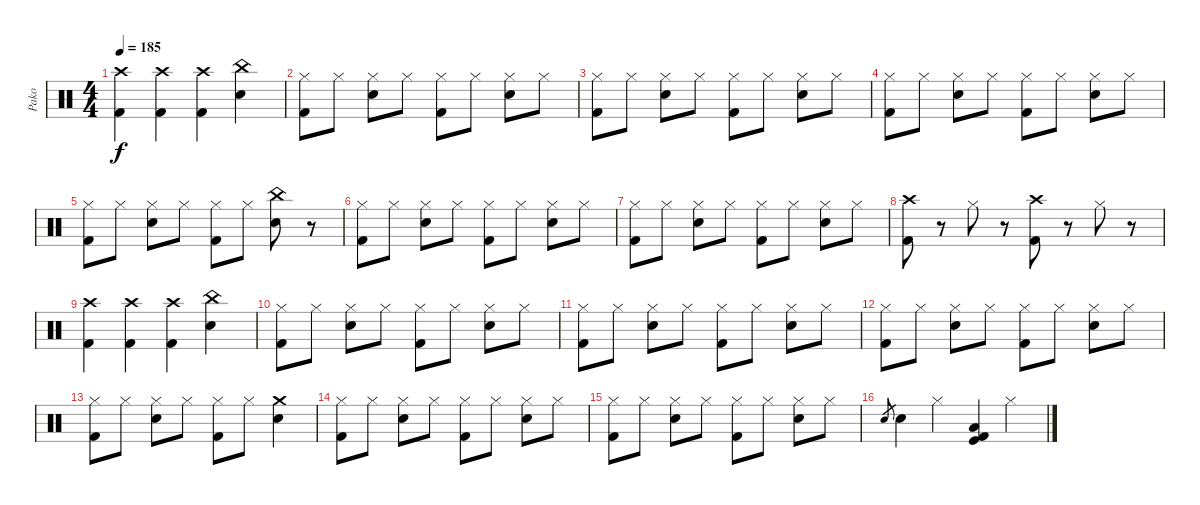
\track ("Pako" "Pako") {instrument percussion}
\staff {score}
\articulation defaults
\ts (4 4)
\tempo 185
\clef neutral
\ks c
("Crash high (hit)" "Kick (hit) 2").4{dy f} ("Crash high (hit)" "Kick (hit) 2").4 ("Crash high (hit)" "Kick (hit) 2").4 ("China (hit)" "Snare (hit) 2").4 |
("Hi-Hat (closed)" "Kick (hit) 2").8 "Hi-Hat (closed)".8 ("Hi-Hat (closed)" "Snare (hit) 2").8 "Hi-Hat (closed)".8 ("Hi-Hat (closed)" "Kick (hit) 2").8 "Hi-Hat (closed)".8 ("Hi-Hat (closed)" "Snare (hit) 2").8 "Hi-Hat (closed)".8 |
("Hi-Hat (closed)" "Kick (hit) 2").8 "Hi-Hat (closed)".8 ("Hi-Hat (closed)" "Snare (hit) 2").8 "Hi-Hat (closed)".8 ("Hi-Hat (closed)" "Kick (hit) 2").8 "Hi-Hat (closed)".8 ("Hi-Hat (closed)" "Snare (hit) 2").8 "Hi-Hat (closed)".8 |
("Hi-Hat (closed)" "Kick (hit) 2").8 "Hi-Hat (closed)".8 ("Hi-Hat (closed)" "Snare (hit) 2").8 "Hi-Hat (closed)".8 ("Hi-Hat (closed)" "Kick (hit) 2").8 "Hi-Hat (closed)".8 ("Hi-Hat (closed)" "Snare (hit) 2").8 "Hi-Hat (closed)".8 |
("Hi-Hat (closed)" "Kick (hit) 2").8 "Hi-Hat (closed)".8 ("Hi-Hat (closed)" "Snare (hit) 2").8 "Hi-Hat (closed)".8 ("Hi-Hat (closed)" "Kick (hit) 2").8 "Hi-Hat (closed)".8 ("China (hit)" "Snare (hit) 2").8 r.8 |
("Hi-Hat (closed)" "Kick (hit) 2").8 "Hi-Hat (closed)".8 ("Hi-Hat (closed)" "Snare (hit) 2").8 "Hi-Hat (closed)".8 ("Hi-Hat (closed)" "Kick (hit) 2").8 "Hi-Hat (closed)".8 ("Hi-Hat (closed)" "Snare (hit) 2").8 "Hi-Hat (closed)".8 |
("Hi-Hat (closed)" "Kick (hit) 2").8 "Hi-Hat (closed)".8 ("Hi-Hat (closed)" "Snare (hit) 2").8 "Hi-Hat (closed)".8 ("Hi-Hat (closed)" "Kick (hit) 2").8 "Hi-Hat (closed)".8 ("Hi-Hat (closed)" "Snare (hit) 2").8 "Hi-Hat (closed)".8 |
("Crash high (hit)" "Kick (hit) 2").8 r.8 "Hi-Hat (closed)".8 r.8 ("Crash high (hit)" "Kick (hit) 2").8 r.8 "Hi-Hat (closed)".8 r.8 |
("Crash high (hit)" "Kick (hit) 2").4 ("Crash high (hit)" "Kick (hit) 2").4 ("Crash high (hit)" "Kick (hit) 2").4 ("China (hit)" "Snare (hit) 2").4 |
("Hi-Hat (closed)" "Kick (hit) 2").8 "Hi-Hat (closed)".8 ("Hi-Hat (closed)" "Snare (hit) 2").8 "Hi-Hat (closed)".8 ("Hi-Hat (closed)" "Kick (hit) 2").8 "Hi-Hat (closed)".8 ("Hi-Hat (closed)" "Snare (hit) 2").8 "Hi-Hat (closed)".8 |
("Hi-Hat (closed)" "Kick (hit) 2").8 "Hi-Hat (closed)".8 ("Hi-Hat (closed)" "Snare (hit) 2").8 "Hi-Hat (closed)".8 ("Hi-Hat (closed)" "Kick (hit) 2").8 "Hi-Hat (closed)".8 ("Hi-Hat (closed)" "Snare (hit) 2").8 "Hi-Hat (closed)".8 |
("Hi-Hat (closed)" "Kick (hit) 2").8 "Hi-Hat (closed)".8 ("Hi-Hat (closed)" "Snare (hit) 2").8 "Hi-Hat (closed)".8 ("Hi-Hat (closed)" "Kick (hit) 2").8 "Hi-Hat (closed)".8 ("Hi-Hat (closed)" "Snare (hit) 2").8 "Hi-Hat (closed)".8 |
("Hi-Hat (closed)" "Kick (hit) 2").8 "Hi-Hat (closed)".8 ("Hi-Hat (closed)" "Snare (hit) 2").8 "Hi-Hat (closed)".8 ("Hi-Hat (closed)" "Kick (hit) 2").8 "Hi-Hat (closed)".8 ("Crash medium (hit)" "Snare (hit) 2").4 |
("Hi-Hat (closed)" "Kick (hit) 2").8 "Hi-Hat (closed)".8 ("Hi-Hat (closed)" "Snare (hit) 2").8 "Hi-Hat (closed)".8 ("Hi-Hat (closed)" "Kick (hit) 2").8 "Hi-Hat (closed)".8 ("Hi-Hat (closed)" "Snare (hit) 2").8 "Hi-Hat (closed)".8 |
("Hi-Hat (closed)" "Kick (hit) 2").8 "Hi-Hat (closed)".8 ("Hi-Hat (closed)" "Snare (hit) 2").8 "Hi-Hat (closed)".8 ("Hi-Hat (closed)" "Kick (hit) 2").8 "Hi-Hat (closed)".8 ("Hi-Hat (closed)" "Snare (hit) 2").8 "Hi-Hat (closed)".8 |
"Snare (hit) 2".8{gr} "Snare (hit) 2".4 "Hi-Hat (closed)".4 ("Low Tom (hit)" "Kick (hit)" "Kick (hit) 2").4 "Hi-Hat (closed)".4
